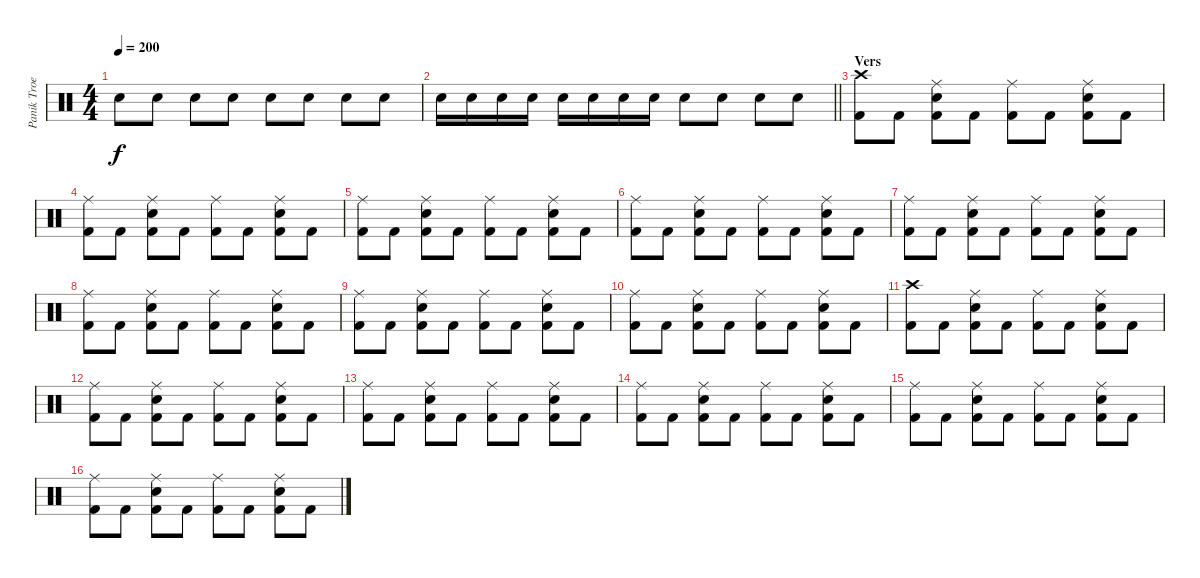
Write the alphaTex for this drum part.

\track ("Panik Troels ( Dengang )" "Panik Troe") {instrument percussion}
\staff {score}
\articulation defaults
\ts (4 4)
\tempo 200
\clef neutral
\ks c "Snare (hit) 2".8{dy f} "Snare (hit) 2".8 "Snare (hit) 2".8 "Snare (hit) 2".8 "Snare (hit) 2".8 "Snare (hit) 2".8 "Snare (hit) 2".8 "Snare (hit) 2".8
|
\barLineRight lightlight "Snare (hit) 2".16 "Snare (hit) 2".16 "Snare (hit) 2".16 "Snare (hit) 2".16 "Snare (hit) 2".16 "Snare (hit) 2".16 "Snare (hit) 2".16 "Snare (hit) 2".16 "Snare (hit) 2".8 "Snare (hit) 2".8 "Snare (hit) 2".8 "Snare (hit) 2".8
|
\section ("" "Vers")
("Kick (hit) 2" "Crash high (hit)").8 "Kick (hit) 2".8 ("Kick (hit) 2" "Ride (middle)" "Snare (hit) 2").8 "Kick (hit) 2".8 ("Kick (hit) 2" "Ride (middle)").8 "Kick (hit) 2".8 ("Kick (hit) 2" "Ride (middle)" "Snare (hit) 2").8 "Kick (hit) 2".8 |
("Kick (hit) 2" "Ride (middle)").8 "Kick (hit) 2".8 ("Kick (hit) 2" "Ride (middle)" "Snare (hit) 2").8 "Kick (hit) 2".8 ("Kick (hit) 2" "Ride (middle)").8 "Kick (hit) 2".8 ("Kick (hit) 2" "Ride (middle)" "Snare (hit) 2").8 "Kick (hit) 2".8 |
("Kick (hit) 2" "Ride (middle)").8 "Kick (hit) 2".8 ("Kick (hit) 2" "Ride (middle)" "Snare (hit) 2").8 "Kick (hit) 2".8 ("Kick (hit) 2" "Ride (middle)").8 "Kick (hit) 2".8 ("Kick (hit) 2" "Ride (middle)" "Snare (hit) 2").8 "Kick (hit) 2".8 |
("Kick (hit) 2" "Ride (middle)").8 "Kick (hit) 2".8 ("Kick (hit) 2" "Ride (middle)" "Snare (hit) 2").8 "Kick (hit) 2".8 ("Kick (hit) 2" "Ride (middle)").8 "Kick (hit) 2".8 ("Kick (hit) 2" "Ride (middle)" "Snare (hit) 2").8 "Kick (hit) 2".8 |
("Kick (hit) 2" "Ride (middle)").8 "Kick (hit) 2".8 ("Kick (hit) 2" "Ride (middle)" "Snare (hit) 2").8 "Kick (hit) 2".8 ("Kick (hit) 2" "Ride (middle)").8 "Kick (hit) 2".8 ("Kick (hit) 2" "Ride (middle)" "Snare (hit) 2").8 "Kick (hit) 2".8 |
("Kick (hit) 2" "Ride (middle)").8 "Kick (hit) 2".8 ("Kick (hit) 2" "Ride (middle)" "Snare (hit) 2").8 "Kick (hit) 2".8 ("Kick (hit) 2" "Ride (middle)").8 "Kick (hit) 2".8 ("Kick (hit) 2" "Ride (middle)" "Snare (hit) 2").8 "Kick (hit) 2".8 |
("Kick (hit) 2" "Ride (middle)").8 "Kick (hit) 2".8 ("Kick (hit) 2" "Ride (middle)" "Snare (hit) 2").8 "Kick (hit) 2".8 ("Kick (hit) 2" "Ride (middle)").8 "Kick (hit) 2".8 ("Kick (hit) 2" "Ride (middle)" "Snare (hit) 2").8 "Kick (hit) 2".8 |
("Kick (hit) 2" "Ride (middle)").8 "Kick (hit) 2".8 ("Kick (hit) 2" "Ride (middle)" "Snare (hit) 2").8 "Kick (hit) 2".8 ("Kick (hit) 2" "Ride (middle)").8 "Kick (hit) 2".8 ("Kick (hit) 2" "Ride (middle)" "Snare (hit) 2").8 "Kick (hit) 2".8 |
("Kick (hit) 2" "Crash high (hit)").8 "Kick (hit) 2".8 ("Kick (hit) 2" "Ride (middle)" "Snare (hit) 2").8 "Kick (hit) 2".8 ("Kick (hit) 2" "Ride (middle)").8 "Kick (hit) 2".8 ("Kick (hit) 2" "Ride (middle)" "Snare (hit) 2").8 "Kick (hit) 2".8 |
("Kick (hit) 2" "Ride (middle)").8 "Kick (hit) 2".8 ("Kick (hit) 2" "Ride (middle)" "Snare (hit) 2").8 "Kick (hit) 2".8 ("Kick (hit) 2" "Ride (middle)").8 "Kick (hit) 2".8 ("Kick (hit) 2" "Ride (middle)" "Snare (hit) 2").8 "Kick (hit) 2".8 |
("Kick (hit) 2" "Ride (middle)").8 "Kick (hit) 2".8 ("Kick (hit) 2" "Ride (middle)" "Snare (hit) 2").8 "Kick (hit) 2".8 ("Kick (hit) 2" "Ride (middle)").8 "Kick (hit) 2".8 ("Kick (hit) 2" "Ride (middle)" "Snare (hit) 2").8 "Kick (hit) 2".8 |
("Kick (hit) 2" "Ride (middle)").8 "Kick (hit) 2".8 ("Kick (hit) 2" "Ride (middle)" "Snare (hit) 2").8 "Kick (hit) 2".8 ("Kick (hit) 2" "Ride (middle)").8 "Kick (hit) 2".8 ("Kick (hit) 2" "Ride (middle)" "Snare (hit) 2").8 "Kick (hit) 2".8 |
("Kick (hit) 2" "Ride (middle)").8 "Kick (hit) 2".8 ("Kick (hit) 2" "Ride (middle)" "Snare (hit) 2").8 "Kick (hit) 2".8 ("Kick (hit) 2" "Ride (middle)").8 "Kick (hit) 2".8 ("Kick (hit) 2" "Ride (middle)" "Snare (hit) 2").8 "Kick (hit) 2".8 |
("Kick (hit) 2" "Ride (middle)").8 "Kick (hit) 2".8 ("Kick (hit) 2" "Ride (middle)" "Snare (hit) 2").8 "Kick (hit) 2".8 ("Kick (hit) 2" "Ride (middle)").8 "Kick (hit) 2".8 ("Kick (hit) 2" "Ride (middle)" "Snare (hit) 2").8 "Kick (hit) 2".8
